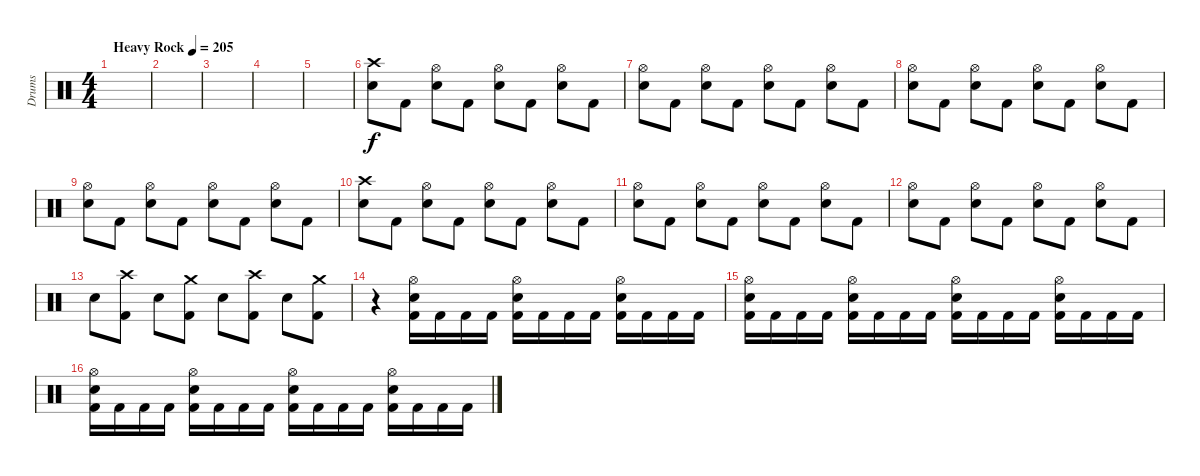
\track ("Drums" "Drums") {instrument percussion bank 169}
\staff {score}
\articulation defaults
\ts (4 4)
\tempo (205 "Heavy Rock")
\clef neutral
\ks c
|
|
|
|
|
("Crash high (hit)" "Snare (hit) 2").8 "Kick (hit) 2".8 ("Hi-Hat (open)" "Snare (hit) 2").8 "Kick (hit) 2".8 ("Hi-Hat (open)" "Snare (hit) 2").8 "Kick (hit) 2".8 ("Hi-Hat (open)" "Snare (hit) 2").8 "Kick (hit) 2".8 |
("Hi-Hat (open)" "Snare (hit) 2").8 "Kick (hit) 2".8 ("Hi-Hat (open)" "Snare (hit) 2").8 "Kick (hit) 2".8 ("Hi-Hat (open)" "Snare (hit) 2").8 "Kick (hit) 2".8 ("Hi-Hat (open)" "Snare (hit) 2").8 "Kick (hit) 2".8 |
("Hi-Hat (open)" "Snare (hit) 2").8 "Kick (hit) 2".8 ("Hi-Hat (open)" "Snare (hit) 2").8 "Kick (hit) 2".8 ("Hi-Hat (open)" "Snare (hit) 2").8 "Kick (hit) 2".8 ("Hi-Hat (open)" "Snare (hit) 2").8 "Kick (hit) 2".8 |
("Hi-Hat (open)" "Snare (hit) 2").8 "Kick (hit) 2".8 ("Hi-Hat (open)" "Snare (hit) 2").8 "Kick (hit) 2".8 ("Hi-Hat (open)" "Snare (hit) 2").8 "Kick (hit) 2".8 ("Hi-Hat (open)" "Snare (hit) 2").8 "Kick (hit) 2".8 |
("Crash high (hit)" "Snare (hit) 2").8 "Kick (hit) 2".8 ("Hi-Hat (open)" "Snare (hit) 2").8 "Kick (hit) 2".8 ("Hi-Hat (open)" "Snare (hit) 2").8 "Kick (hit) 2".8 ("Hi-Hat (open)" "Snare (hit) 2").8 "Kick (hit) 2".8 |
("Hi-Hat (open)" "Snare (hit) 2").8 "Kick (hit) 2".8 ("Hi-Hat (open)" "Snare (hit) 2").8 "Kick (hit) 2".8 ("Hi-Hat (open)" "Snare (hit) 2").8 "Kick (hit) 2".8 ("Hi-Hat (open)" "Snare (hit) 2").8 "Kick (hit) 2".8 |
("Hi-Hat (open)" "Snare (hit) 2").8 "Kick (hit) 2".8 ("Hi-Hat (open)" "Snare (hit) 2").8 "Kick (hit) 2".8 ("Hi-Hat (open)" "Snare (hit) 2").8 "Kick (hit) 2".8 ("Hi-Hat (open)" "Snare (hit) 2").8 "Kick (hit) 2".8 |
"Snare (hit) 2".8 ("Crash high (hit)" "Kick (hit) 2").8 "Snare (hit) 2".8 ("Crash medium (hit)" "Kick (hit) 2").8 "Snare (hit) 2".8 ("Crash high (hit)" "Kick (hit) 2").8 "Snare (hit) 2".8 ("Crash medium (hit)" "Kick (hit) 2").8 |
r.4 ("Hi-Hat (open)" "Snare (hit) 2" "Kick (hit) 2").16 "Kick (hit) 2".16 "Kick (hit) 2".16 "Kick (hit) 2".16 ("Hi-Hat (open)" "Snare (hit) 2" "Kick (hit) 2").16 "Kick (hit) 2".16 "Kick (hit) 2".16 "Kick (hit) 2".16 ("Hi-Hat (open)" "Snare (hit) 2" "Kick (hit) 2").16 "Kick (hit) 2".16 "Kick (hit) 2".16 "Kick (hit) 2".16 |
("Hi-Hat (open)" "Snare (hit) 2" "Kick (hit) 2").16 "Kick (hit) 2".16 "Kick (hit) 2".16 "Kick (hit) 2".16 ("Hi-Hat (open)" "Snare (hit) 2" "Kick (hit) 2").16 "Kick (hit) 2".16 "Kick (hit) 2".16 "Kick (hit) 2".16 ("Hi-Hat (open)" "Snare (hit) 2" "Kick (hit) 2").16 "Kick (hit) 2".16 "Kick (hit) 2".16 "Kick (hit) 2".16 ("Hi-Hat (open)" "Snare (hit) 2" "Kick (hit) 2").16 "Kick (hit) 2".16 "Kick (hit) 2".16 "Kick (hit) 2".16 |
("Hi-Hat (open)" "Snare (hit) 2" "Kick (hit) 2").16 "Kick (hit) 2".16 "Kick (hit) 2".16 "Kick (hit) 2".16 ("Hi-Hat (open)" "Snare (hit) 2" "Kick (hit) 2").16 "Kick (hit) 2".16 "Kick (hit) 2".16 "Kick (hit) 2".16 ("Hi-Hat (open)" "Snare (hit) 2" "Kick (hit) 2").16 "Kick (hit) 2".16 "Kick (hit) 2".16 "Kick (hit) 2".16 ("Hi-Hat (open)" "Snare (hit) 2" "Kick (hit) 2").16 "Kick (hit) 2".16 "Kick (hit) 2".16 "Kick (hit) 2".16
